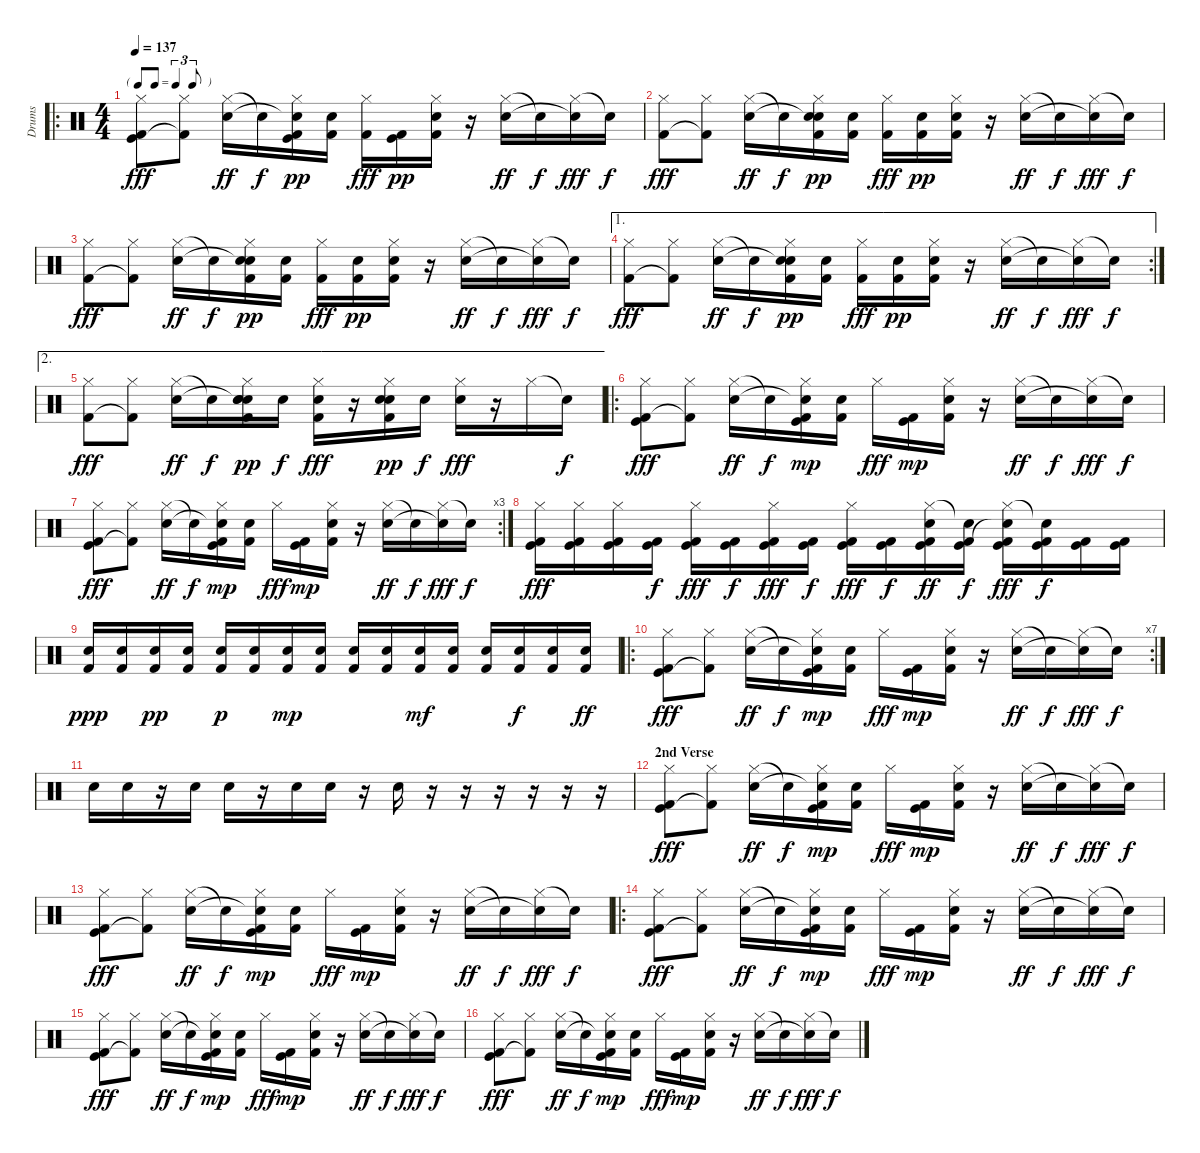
\track ("Drums" "Drums") {instrument percussion}
\staff {score}
\articulation defaults
\ro
\ts (4 4)
\tf triplet8th
\tempo 137
\clef neutral
\ks c
("Hi-Hat (closed)" "Kick (hit)" "Kick (hit) 2").8{dy fff} ("Hi-Hat (closed)" "Kick (hit) 2"{t}).8 ("Hi-Hat (closed)" "Electric Snare (hit)").16{dy ff} "Snare (hit)"{t}.16{dy f} ("Hi-Hat (closed)" "Snare (hit)"{t} "Kick (hit)" "Kick (hit) 2").16{dy pp} ("Electric Snare (hit)" "Kick (hit) 2").16 ("Hi-Hat (closed)" "Kick (hit) 2").16{dy fff} ("Kick (hit)" "Kick (hit) 2").16{dy pp} ("Hi-Hat (closed)" "Electric Snare (hit)" "Kick (hit) 2").16 r.16 ("Hi-Hat (closed)" "Electric Snare (hit)").16{dy ff} "Snare (hit)"{t}.16{dy f} ("Hi-Hat (closed)" "Snare (hit)"{t}).16{dy fff} "Snare (hit)"{t}.16{dy f} |
("Hi-Hat (closed)" "Kick (hit) 2").8{dy fff} ("Hi-Hat (closed)" "Kick (hit) 2"{t}).8 ("Hi-Hat (closed)" "Electric Snare (hit)").16{dy ff} "Snare (hit)"{t}.16{dy f} ("Hi-Hat (closed)" "Snare (hit)"{t} "Electric Snare (hit)" "Kick (hit) 2").16{dy pp} ("Electric Snare (hit)" "Kick (hit) 2").16 ("Hi-Hat (closed)" "Kick (hit) 2").16{dy fff} ("Electric Snare (hit)" "Kick (hit) 2").16{dy pp} ("Hi-Hat (closed)" "Electric Snare (hit)" "Kick (hit) 2").16 r.16 ("Hi-Hat (closed)" "Electric Snare (hit)").16{dy ff} "Snare (hit)"{t}.16{dy f} ("Hi-Hat (closed)" "Snare (hit)"{t}).16{dy fff} "Snare (hit)"{t}.16{dy f} |
("Hi-Hat (closed)" "Kick (hit) 2").8{dy fff} ("Hi-Hat (closed)" "Kick (hit) 2"{t}).8 ("Hi-Hat (closed)" "Electric Snare (hit)").16{dy ff} "Snare (hit)"{t}.16{dy f} ("Hi-Hat (closed)" "Snare (hit)"{t} "Electric Snare (hit)" "Kick (hit) 2").16{dy pp} ("Electric Snare (hit)" "Kick (hit) 2").16 ("Hi-Hat (closed)" "Kick (hit) 2").16{dy fff} ("Electric Snare (hit)" "Kick (hit) 2").16{dy pp} ("Hi-Hat (closed)" "Electric Snare (hit)" "Kick (hit) 2").16 r.16 ("Hi-Hat (closed)" "Electric Snare (hit)").16{dy ff} "Snare (hit)"{t}.16{dy f} ("Hi-Hat (closed)" "Snare (hit)"{t}).16{dy fff} "Snare (hit)"{t}.16{dy f} |
\ae 1
\rc 2
("Hi-Hat (closed)" "Kick (hit) 2").8{dy fff} ("Hi-Hat (closed)" "Kick (hit) 2"{t}).8 ("Hi-Hat (closed)" "Electric Snare (hit)").16{dy ff} "Snare (hit)"{t}.16{dy f} ("Hi-Hat (closed)" "Snare (hit)"{t} "Electric Snare (hit)" "Kick (hit) 2").16{dy pp} ("Electric Snare (hit)" "Kick (hit) 2").16 ("Hi-Hat (closed)" "Kick (hit) 2").16{dy fff} ("Electric Snare (hit)" "Kick (hit) 2").16{dy pp} ("Hi-Hat (closed)" "Electric Snare (hit)" "Kick (hit) 2").16 r.16 ("Hi-Hat (closed)" "Electric Snare (hit)").16{dy ff} "Snare (hit)"{t}.16{dy f} ("Hi-Hat (closed)" "Snare (hit)"{t}).16{dy fff} "Snare (hit)"{t}.16{dy f} |
\ae 2
("Hi-Hat (closed)" "Kick (hit) 2").8{dy fff} ("Hi-Hat (closed)" "Kick (hit) 2"{t}).8 ("Hi-Hat (closed)" "Electric Snare (hit)").16{dy ff} "Snare (hit)"{t}.16{dy f} ("Hi-Hat (closed)" "Snare (hit)"{t} "Electric Snare (hit)" "Electric Snare (hit)" "Kick (hit) 2").16{dy pp} "Electric Snare (hit)".16{dy f} ("Hi-Hat (closed)" "Electric Snare (hit)" "Kick (hit) 2").16{dy fff} r.16 ("Hi-Hat (closed)" "Electric Snare (hit)" "Electric Snare (hit)" "Kick (hit) 2").16{dy pp} "Electric Snare (hit)".16{dy f} ("Hi-Hat (closed)" "Electric Snare (hit)").16{dy fff} r.16 "Hi-Hat (closed)".16 "Snare (hit)"{t}.16{dy f} |
\ro
("Hi-Hat (closed)" "Kick (hit) 2" "Kick (hit)").8{dy fff} ("Hi-Hat (closed)" "Kick (hit) 2"{t}).8 ("Hi-Hat (closed)" "Electric Snare (hit)").16{dy ff} "Snare (hit)"{t}.16{dy f} ("Hi-Hat (closed)" "Snare (hit)"{t} "Kick (hit)" "Kick (hit) 2").16{dy mp} ("Electric Snare (hit)" "Kick (hit) 2").16 "Hi-Hat (closed)".16{dy fff} ("Kick (hit)" "Kick (hit) 2").16{dy mp} ("Hi-Hat (closed)" "Electric Snare (hit)" "Kick (hit) 2").16 r.16 ("Hi-Hat (closed)" "Electric Snare (hit)").16{dy ff} "Snare (hit)"{t}.16{dy f} ("Hi-Hat (closed)" "Snare (hit)"{t}).16{dy fff} "Snare (hit)"{t}.16{dy f} |
\rc 3
("Hi-Hat (closed)" "Kick (hit)" "Kick (hit) 2").8{dy fff} ("Hi-Hat (closed)" "Kick (hit) 2"{t}).8 ("Hi-Hat (closed)" "Electric Snare (hit)").16{dy ff} "Snare (hit)"{t}.16{dy f} ("Hi-Hat (closed)" "Snare (hit)"{t} "Kick (hit)" "Kick (hit) 2").16{dy mp} ("Electric Snare (hit)" "Kick (hit) 2").16 "Hi-Hat (closed)".16{dy fff} ("Kick (hit)" "Kick (hit) 2").16{dy mp} ("Hi-Hat (closed)" "Electric Snare (hit)" "Kick (hit) 2").16 r.16 ("Hi-Hat (closed)" "Electric Snare (hit)").16{dy ff} "Snare (hit)"{t}.16{dy f} ("Hi-Hat (closed)" "Snare (hit)"{t}).16{dy fff} "Snare (hit)"{t}.16{dy f} |
("Hi-Hat (closed)" "Kick (hit)" "Kick (hit) 2").16{dy fff} ("Hi-Hat (closed)" "Kick (hit)" "Kick (hit) 2").16 ("Hi-Hat (closed)" "Kick (hit)" "Kick (hit) 2").16 ("Kick (hit)" "Kick (hit) 2").16{dy f} ("Hi-Hat (closed)" "Kick (hit)" "Kick (hit) 2").16{dy fff} ("Kick (hit)" "Kick (hit) 2").16{dy f} ("Hi-Hat (closed)" "Kick (hit)" "Kick (hit) 2").16{dy fff} ("Kick (hit)" "Kick (hit) 2").16{dy f} ("Hi-Hat (closed)" "Kick (hit)" "Kick (hit) 2").16{dy fff} ("Kick (hit)" "Kick (hit) 2").16{dy f} ("Hi-Hat (closed)" "Electric Snare (hit)" "Kick (hit)" "Kick (hit) 2").16{dy ff} ("Snare (hit)"{t} "Kick (hit)" "Kick (hit) 2").16{dy f} ("Hi-Hat (closed)" "Snare (hit)"{t} "Kick (hit)" "Kick (hit) 2").16{dy fff} ("Snare (hit)"{t} "Kick (hit)" "Kick (hit) 2").16{dy f} ("Kick (hit)" "Kick (hit) 2").16 ("Kick (hit)" "Kick (hit) 2").16 |
("Electric Snare (hit)" "Kick (hit) 2").16{dy ppp} ("Electric Snare (hit)" "Kick (hit) 2").16 ("Electric Snare (hit)" "Kick (hit) 2").16{dy pp} ("Electric Snare (hit)" "Kick (hit) 2").16 ("Electric Snare (hit)" "Kick (hit) 2").16{dy p} ("Electric Snare (hit)" "Kick (hit) 2").16 ("Electric Snare (hit)" "Kick (hit) 2").16{dy mp} ("Electric Snare (hit)" "Kick (hit) 2").16 ("Electric Snare (hit)" "Kick (hit) 2").16 ("Electric Snare (hit)" "Kick (hit) 2").16 ("Electric Snare (hit)" "Kick (hit) 2").16{dy mf} ("Electric Snare (hit)" "Kick (hit) 2").16 ("Electric Snare (hit)" "Kick (hit) 2").16 ("Electric Snare (hit)" "Kick (hit) 2").16{dy f} ("Electric Snare (hit)" "Kick (hit) 2").16 ("Electric Snare (hit)" "Kick (hit) 2").16{dy ff} |
\ro
\rc 7
("Hi-Hat (closed)" "Kick (hit)" "Kick (hit) 2").8{dy fff} ("Hi-Hat (closed)" "Kick (hit) 2"{t}).8 ("Hi-Hat (closed)" "Electric Snare (hit)").16{dy ff} "Snare (hit)"{t}.16{dy f} ("Hi-Hat (closed)" "Snare (hit)"{t} "Kick (hit)" "Kick (hit) 2").16{dy mp} ("Electric Snare (hit)" "Kick (hit) 2").16 "Hi-Hat (closed)".16{dy fff} ("Kick (hit)" "Kick (hit) 2").16{dy mp} ("Hi-Hat (closed)" "Electric Snare (hit)" "Kick (hit) 2").16 r.16 ("Hi-Hat (closed)" "Electric Snare (hit)").16{dy ff} "Snare (hit)"{t}.16{dy f} ("Hi-Hat (closed)" "Snare (hit)"{t}).16{dy fff} "Snare (hit)"{t}.16{dy f} |
"Electric Snare (hit)".16 "Electric Snare (hit)".16 r.16 "Electric Snare (hit)".16 "Electric Snare (hit)".16 r.16 "Electric Snare (hit)".16 "Electric Snare (hit)".16 r.16 "Electric Snare (hit)".16 r.16 r.16 r.16 r.16 r.16 r.16 |
\section ("" "2nd Verse")
("Hi-Hat (closed)" "Kick (hit)" "Kick (hit) 2").8{dy fff} ("Hi-Hat (closed)" "Kick (hit) 2"{t}).8 ("Hi-Hat (closed)" "Electric Snare (hit)").16{dy ff} "Snare (hit)"{t}.16{dy f} ("Hi-Hat (closed)" "Snare (hit)"{t} "Kick (hit)" "Kick (hit) 2").16{dy mp} ("Electric Snare (hit)" "Kick (hit) 2").16 "Hi-Hat (closed)".16{dy fff} ("Kick (hit)" "Kick (hit) 2").16{dy mp} ("Hi-Hat (closed)" "Electric Snare (hit)" "Kick (hit) 2").16 r.16 ("Hi-Hat (closed)" "Electric Snare (hit)").16{dy ff} "Snare (hit)"{t}.16{dy f} ("Hi-Hat (closed)" "Snare (hit)"{t}).16{dy fff} "Snare (hit)"{t}.16{dy f} |
("Hi-Hat (closed)" "Kick (hit)" "Kick (hit) 2").8{dy fff} ("Hi-Hat (closed)" "Kick (hit) 2"{t}).8 ("Hi-Hat (closed)" "Electric Snare (hit)").16{dy ff} "Snare (hit)"{t}.16{dy f} ("Hi-Hat (closed)" "Snare (hit)"{t} "Kick (hit)" "Kick (hit) 2").16{dy mp} ("Electric Snare (hit)" "Kick (hit) 2").16 "Hi-Hat (closed)".16{dy fff} ("Kick (hit)" "Kick (hit) 2").16{dy mp} ("Hi-Hat (closed)" "Electric Snare (hit)" "Kick (hit) 2").16 r.16 ("Hi-Hat (closed)" "Electric Snare (hit)").16{dy ff} "Snare (hit)"{t}.16{dy f} ("Hi-Hat (closed)" "Snare (hit)"{t}).16{dy fff} "Snare (hit)"{t}.16{dy f} |
\ro
("Hi-Hat (closed)" "Kick (hit)" "Kick (hit) 2").8{dy fff} ("Hi-Hat (closed)" "Kick (hit) 2"{t}).8 ("Hi-Hat (closed)" "Electric Snare (hit)").16{dy ff} "Snare (hit)"{t}.16{dy f} ("Hi-Hat (closed)" "Snare (hit)"{t} "Kick (hit)" "Kick (hit) 2").16{dy mp} ("Electric Snare (hit)" "Kick (hit) 2").16 "Hi-Hat (closed)".16{dy fff} ("Kick (hit)" "Kick (hit) 2").16{dy mp} ("Hi-Hat (closed)" "Electric Snare (hit)" "Kick (hit) 2").16 r.16 ("Hi-Hat (closed)" "Electric Snare (hit)").16{dy ff} "Snare (hit)"{t}.16{dy f} ("Hi-Hat (closed)" "Snare (hit)"{t}).16{dy fff} "Snare (hit)"{t}.16{dy f} |
("Hi-Hat (closed)" "Kick (hit)" "Kick (hit) 2").8{dy fff} ("Hi-Hat (closed)" "Kick (hit) 2"{t}).8 ("Hi-Hat (closed)" "Electric Snare (hit)").16{dy ff} "Snare (hit)"{t}.16{dy f} ("Hi-Hat (closed)" "Snare (hit)"{t} "Kick (hit)" "Kick (hit) 2").16{dy mp} ("Electric Snare (hit)" "Kick (hit) 2").16 "Hi-Hat (closed)".16{dy fff} ("Kick (hit)" "Kick (hit) 2").16{dy mp} ("Hi-Hat (closed)" "Electric Snare (hit)" "Kick (hit) 2").16 r.16 ("Hi-Hat (closed)" "Electric Snare (hit)").16{dy ff} "Snare (hit)"{t}.16{dy f} ("Hi-Hat (closed)" "Snare (hit)"{t}).16{dy fff} "Snare (hit)"{t}.16{dy f} |
("Hi-Hat (closed)" "Kick (hit)" "Kick (hit) 2").8{dy fff} ("Hi-Hat (closed)" "Kick (hit) 2"{t}).8 ("Hi-Hat (closed)" "Electric Snare (hit)").16{dy ff} "Snare (hit)"{t}.16{dy f} ("Hi-Hat (closed)" "Snare (hit)"{t} "Kick (hit)" "Kick (hit) 2").16{dy mp} ("Electric Snare (hit)" "Kick (hit) 2").16 "Hi-Hat (closed)".16{dy fff} ("Kick (hit)" "Kick (hit) 2").16{dy mp} ("Hi-Hat (closed)" "Electric Snare (hit)" "Kick (hit) 2").16 r.16 ("Hi-Hat (closed)" "Electric Snare (hit)").16{dy ff} "Snare (hit)"{t}.16{dy f} ("Hi-Hat (closed)" "Snare (hit)"{t}).16{dy fff} "Snare (hit)"{t}.16{dy f}
